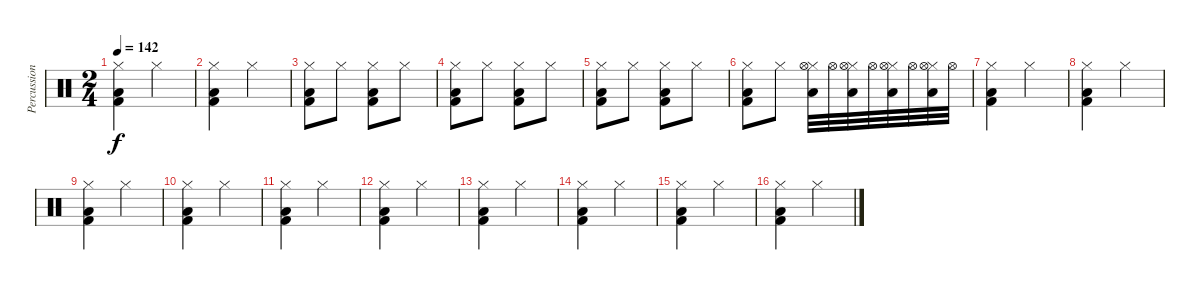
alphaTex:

\track ("Percussions" "Percussion") {instrument percussion}
\staff {score}
\articulation defaults
\ts (2 4)
\tempo 142
\clef neutral
\ks c
("Hi-Hat (closed)" "Low Tom (hit)" "Kick (hit) 2").4{dy f} "Hi-Hat (closed)".4 |
("Hi-Hat (closed)" "Low Tom (hit)" "Kick (hit) 2").4 "Hi-Hat (closed)".4 |
("Hi-Hat (closed)" "Low Tom (hit)" "Kick (hit) 2").8 "Hi-Hat (closed)".8 ("Hi-Hat (closed)" "Low Tom (hit)" "Kick (hit) 2").8 "Hi-Hat (closed)".8 |
("Hi-Hat (closed)" "Low Tom (hit)" "Kick (hit) 2").8 "Hi-Hat (closed)".8 ("Hi-Hat (closed)" "Low Tom (hit)" "Kick (hit) 2").8 "Hi-Hat (closed)".8 |
("Hi-Hat (closed)" "Low Tom (hit)" "Kick (hit) 2").8 "Hi-Hat (closed)".8 ("Hi-Hat (closed)" "Low Tom (hit)" "Kick (hit) 2").8 "Hi-Hat (closed)".8 |
("Hi-Hat (closed)" "Low Tom (hit)" "Kick (hit) 2").8 "Hi-Hat (closed)".8 ("Hi-Hat (closed)" "Hi-Hat (open)" "Low Floor Tom (hit)").32 "Hi-Hat (open)".32 ("Hi-Hat (closed)" "Low Floor Tom (hit)" "Hi-Hat (open)").32 "Hi-Hat (open)".32 ("Hi-Hat (closed)" "Hi-Hat (open)" "Low Floor Tom (hit)").32 "Hi-Hat (open)".32 ("Hi-Hat (closed)" "Low Floor Tom (hit)" "Hi-Hat (open)").32 "Hi-Hat (open)".32 |
("Hi-Hat (closed)" "Low Tom (hit)" "Kick (hit) 2").4 "Hi-Hat (closed)".4 |
("Hi-Hat (closed)" "Low Tom (hit)" "Kick (hit) 2").4 "Hi-Hat (closed)".4 |
("Hi-Hat (closed)" "Low Tom (hit)" "Kick (hit) 2").4 "Hi-Hat (closed)".4 |
("Hi-Hat (closed)" "Low Tom (hit)" "Kick (hit) 2").4 "Hi-Hat (closed)".4 |
("Hi-Hat (closed)" "Low Tom (hit)" "Kick (hit) 2").4 "Hi-Hat (closed)".4 |
("Hi-Hat (closed)" "Low Tom (hit)" "Kick (hit) 2").4 "Hi-Hat (closed)".4 |
("Hi-Hat (closed)" "Low Tom (hit)" "Kick (hit) 2").4 "Hi-Hat (closed)".4 |
("Hi-Hat (closed)" "Low Tom (hit)" "Kick (hit) 2").4 "Hi-Hat (closed)".4 |
("Hi-Hat (closed)" "Low Tom (hit)" "Kick (hit) 2").4 "Hi-Hat (closed)".4 |
("Hi-Hat (closed)" "Low Tom (hit)" "Kick (hit) 2").4 "Hi-Hat (closed)".4
